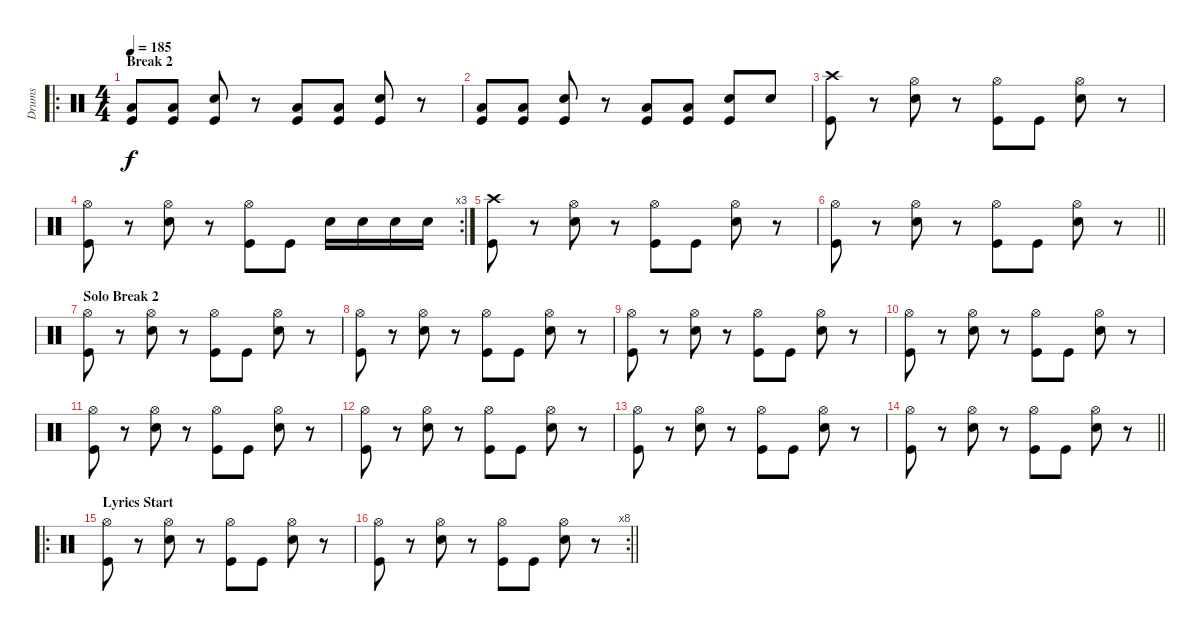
\track ("Drums" "Drums") {instrument percussion}
\staff {score}
\articulation defaults
\ro
\ts (4 4)
\section ("" "Break 2")
\tempo 185
\clef neutral
\ks c
("Low Floor Tom (hit)" "Kick (hit)").8{dy f} ("Low Floor Tom (hit)" "Kick (hit)").8 ("Electric Snare (hit)" "Kick (hit)").8 r.8 ("Low Floor Tom (hit)" "Kick (hit)").8 ("Low Floor Tom (hit)" "Kick (hit)").8 ("Electric Snare (hit)" "Kick (hit)").8 r.8 |
("Low Floor Tom (hit)" "Kick (hit)").8 ("Low Floor Tom (hit)" "Kick (hit)").8 ("Electric Snare (hit)" "Kick (hit)").8 r.8 ("Low Floor Tom (hit)" "Kick (hit)").8 ("Low Floor Tom (hit)" "Kick (hit)").8 ("Electric Snare (hit)" "Kick (hit)").8 "Electric Snare (hit)".8 |
("Crash high (hit)" "Kick (hit)").8 r.8 ("Hi-Hat (open)" "Electric Snare (hit)").8 r.8 ("Hi-Hat (open)" "Kick (hit)").8 "Kick (hit)".8 ("Hi-Hat (open)" "Electric Snare (hit)").8 r.8 |
\rc 3
("Hi-Hat (open)" "Kick (hit)").8 r.8 ("Hi-Hat (open)" "Electric Snare (hit)").8 r.8 ("Hi-Hat (open)" "Kick (hit)").8 "Kick (hit)".8 "Electric Snare (hit)".16 "Electric Snare (hit)".16 "Electric Snare (hit)".16 "Electric Snare (hit)".16 |
("Crash high (hit)" "Kick (hit)").8 r.8 ("Hi-Hat (open)" "Electric Snare (hit)").8 r.8 ("Hi-Hat (open)" "Kick (hit)").8 "Kick (hit)".8 ("Hi-Hat (open)" "Electric Snare (hit)").8 r.8 |
\barLineRight lightlight
("Hi-Hat (open)" "Kick (hit)").8 r.8 ("Hi-Hat (open)" "Electric Snare (hit)").8 r.8 ("Hi-Hat (open)" "Kick (hit)").8 "Kick (hit)".8 ("Hi-Hat (open)" "Electric Snare (hit)").8 r.8 |
\section ("" "Solo Break 2")
("Hi-Hat (open)" "Kick (hit)").8 r.8 ("Hi-Hat (open)" "Electric Snare (hit)").8 r.8 ("Hi-Hat (open)" "Kick (hit)").8 "Kick (hit)".8 ("Hi-Hat (open)" "Electric Snare (hit)").8 r.8 |
("Hi-Hat (open)" "Kick (hit)").8 r.8 ("Hi-Hat (open)" "Electric Snare (hit)").8 r.8 ("Hi-Hat (open)" "Kick (hit)").8 "Kick (hit)".8 ("Hi-Hat (open)" "Electric Snare (hit)").8 r.8 |
("Hi-Hat (open)" "Kick (hit)").8 r.8 ("Hi-Hat (open)" "Electric Snare (hit)").8 r.8 ("Hi-Hat (open)" "Kick (hit)").8 "Kick (hit)".8 ("Hi-Hat (open)" "Electric Snare (hit)").8 r.8 |
("Hi-Hat (open)" "Kick (hit)").8 r.8 ("Hi-Hat (open)" "Electric Snare (hit)").8 r.8 ("Hi-Hat (open)" "Kick (hit)").8 "Kick (hit)".8 ("Hi-Hat (open)" "Electric Snare (hit)").8 r.8 |
("Hi-Hat (open)" "Kick (hit)").8 r.8 ("Hi-Hat (open)" "Electric Snare (hit)").8 r.8 ("Hi-Hat (open)" "Kick (hit)").8 "Kick (hit)".8 ("Hi-Hat (open)" "Electric Snare (hit)").8 r.8 |
("Hi-Hat (open)" "Kick (hit)").8 r.8 ("Hi-Hat (open)" "Electric Snare (hit)").8 r.8 ("Hi-Hat (open)" "Kick (hit)").8 "Kick (hit)".8 ("Hi-Hat (open)" "Electric Snare (hit)").8 r.8 |
("Hi-Hat (open)" "Kick (hit)").8 r.8 ("Hi-Hat (open)" "Electric Snare (hit)").8 r.8 ("Hi-Hat (open)" "Kick (hit)").8 "Kick (hit)".8 ("Hi-Hat (open)" "Electric Snare (hit)").8 r.8 |
\barLineRight lightlight
("Hi-Hat (open)" "Kick (hit)").8 r.8 ("Hi-Hat (open)" "Electric Snare (hit)").8 r.8 ("Hi-Hat (open)" "Kick (hit)").8 "Kick (hit)".8 ("Hi-Hat (open)" "Electric Snare (hit)").8 r.8 |
\ro
\section ("" "Lyrics Start")
("Hi-Hat (open)" "Kick (hit)").8 r.8 ("Hi-Hat (open)" "Electric Snare (hit)").8 r.8 ("Hi-Hat (open)" "Kick (hit)").8 "Kick (hit)".8 ("Hi-Hat (open)" "Electric Snare (hit)").8 r.8 |
\rc 8
\barLineRight lightlight
("Hi-Hat (open)" "Kick (hit)").8 r.8 ("Hi-Hat (open)" "Electric Snare (hit)").8 r.8 ("Hi-Hat (open)" "Kick (hit)").8 "Kick (hit)".8 ("Hi-Hat (open)" "Electric Snare (hit)").8 r.8
